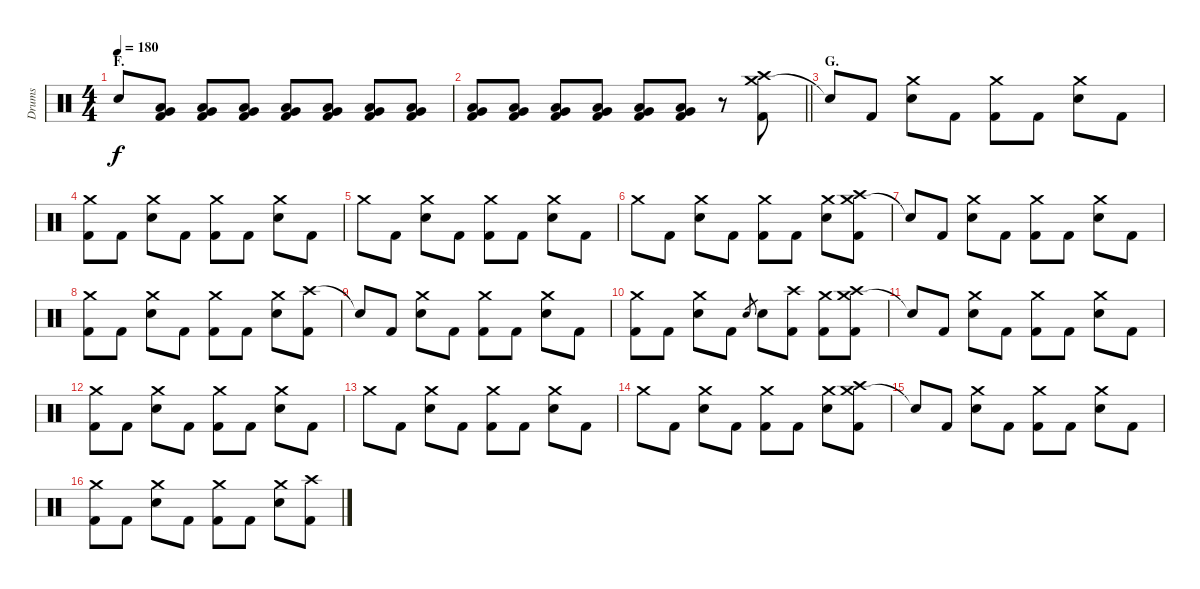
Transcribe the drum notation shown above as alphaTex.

\track ("Drums" "Drums") {instrument percussion}
\staff {score}
\articulation defaults
\ts (4 4)
\section ("" "F.")
\tempo 180
\clef neutral
\ks c "Snare (hit)"{t}.8{dy f}
("Very Low Tom (hit)" "Low Floor Tom (hit)" "Kick (hit) 2").8{volume 6} ("Very Low Tom (hit)" "Low Floor Tom (hit)" "Kick (hit) 2").8{volume 14} ("Very Low Tom (hit)" "Low Floor Tom (hit)" "Kick (hit) 2").8 ("Very Low Tom (hit)" "Low Floor Tom (hit)" "Kick (hit) 2").8 ("Very Low Tom (hit)" "Low Floor Tom (hit)" "Kick (hit) 2").8 ("Very Low Tom (hit)" "Low Floor Tom (hit)" "Kick (hit) 2").8 ("Very Low Tom (hit)" "Low Floor Tom (hit)" "Kick (hit) 2").8 |
\barLineRight lightlight
("Very Low Tom (hit)" "Low Floor Tom (hit)" "Kick (hit) 2").8 ("Very Low Tom (hit)" "Low Floor Tom (hit)" "Kick (hit) 2").8 ("Very Low Tom (hit)" "Low Floor Tom (hit)" "Kick (hit) 2").8 ("Very Low Tom (hit)" "Low Floor Tom (hit)" "Kick (hit) 2").8 ("Very Low Tom (hit)" "Low Floor Tom (hit)" "Kick (hit) 2").8 ("Very Low Tom (hit)" "Low Floor Tom (hit)" "Kick (hit) 2").8 r.8 ("Crash medium (hit)" "Crash high (hit)" "Kick (hit) 2").8 |
\section ("" "G.")
"Snare (hit)"{t}.8 "Kick (hit) 2".8 ("Crash medium (hit)" "Electric Snare (hit)").8 "Kick (hit) 2".8 ("Crash medium (hit)" "Kick (hit) 2").8 "Kick (hit) 2".8 ("Crash medium (hit)" "Electric Snare (hit)").8 "Kick (hit) 2".8 |
("Crash medium (hit)" "Kick (hit) 2").8 "Kick (hit) 2".8 ("Crash medium (hit)" "Electric Snare (hit)").8 "Kick (hit) 2".8 ("Crash medium (hit)" "Kick (hit) 2").8 "Kick (hit) 2".8 ("Crash medium (hit)" "Electric Snare (hit)").8 "Kick (hit) 2".8 |
"Crash medium (hit)".8 "Kick (hit) 2".8 ("Crash medium (hit)" "Electric Snare (hit)").8 "Kick (hit) 2".8 ("Crash medium (hit)" "Kick (hit) 2").8 "Kick (hit) 2".8 ("Crash medium (hit)" "Electric Snare (hit)").8 "Kick (hit) 2".8 |
"Crash medium (hit)".8 "Kick (hit) 2".8 ("Crash medium (hit)" "Electric Snare (hit)").8 "Kick (hit) 2".8 ("Crash medium (hit)" "Kick (hit) 2").8 "Kick (hit) 2".8 ("Crash medium (hit)" "Electric Snare (hit)").8 ("Crash medium (hit)" "Crash high (hit)" "Kick (hit) 2").8 |
"Snare (hit)"{t}.8 "Kick (hit) 2".8 ("Crash medium (hit)" "Electric Snare (hit)").8 "Kick (hit) 2".8 ("Crash medium (hit)" "Kick (hit) 2").8 "Kick (hit) 2".8 ("Crash medium (hit)" "Electric Snare (hit)").8 "Kick (hit) 2".8 |
("Crash medium (hit)" "Kick (hit) 2").8 "Kick (hit) 2".8 ("Crash medium (hit)" "Electric Snare (hit)").8 "Kick (hit) 2".8 ("Crash medium (hit)" "Kick (hit) 2").8 "Kick (hit) 2".8 ("Crash medium (hit)" "Electric Snare (hit)").8 ("Crash high (hit)" "Kick (hit) 2").8 |
"Snare (hit)"{t}.8 "Kick (hit) 2".8 ("Crash medium (hit)" "Electric Snare (hit)").8 "Kick (hit) 2".8 ("Crash medium (hit)" "Kick (hit) 2").8 "Kick (hit) 2".8 ("Crash medium (hit)" "Electric Snare (hit)").8 "Kick (hit) 2".8 |
("Crash medium (hit)" "Kick (hit) 2").8 "Kick (hit) 2".8 ("Crash medium (hit)" "Electric Snare (hit)").8 "Kick (hit) 2".8 "Electric Snare (hit)".8{gr} "Electric Snare (hit)".8 ("Crash high (hit)" "Kick (hit) 2").8 ("Crash medium (hit)" "Kick (hit) 2").8 ("Crash medium (hit)" "Crash high (hit)" "Kick (hit) 2").8 |
"Snare (hit)"{t}.8 "Kick (hit) 2".8 ("Crash medium (hit)" "Electric Snare (hit)").8 "Kick (hit) 2".8 ("Crash medium (hit)" "Kick (hit) 2").8 "Kick (hit) 2".8 ("Crash medium (hit)" "Electric Snare (hit)").8 "Kick (hit) 2".8 |
("Crash medium (hit)" "Kick (hit) 2").8 "Kick (hit) 2".8 ("Crash medium (hit)" "Electric Snare (hit)").8 "Kick (hit) 2".8 ("Crash medium (hit)" "Kick (hit) 2").8 "Kick (hit) 2".8 ("Crash medium (hit)" "Electric Snare (hit)").8 "Kick (hit) 2".8 |
"Crash medium (hit)".8 "Kick (hit) 2".8 ("Crash medium (hit)" "Electric Snare (hit)").8 "Kick (hit) 2".8 ("Crash medium (hit)" "Kick (hit) 2").8 "Kick (hit) 2".8 ("Crash medium (hit)" "Electric Snare (hit)").8 "Kick (hit) 2".8 |
"Crash medium (hit)".8 "Kick (hit) 2".8 ("Crash medium (hit)" "Electric Snare (hit)").8 "Kick (hit) 2".8 ("Crash medium (hit)" "Kick (hit) 2").8 "Kick (hit) 2".8 ("Crash medium (hit)" "Electric Snare (hit)").8 ("Crash medium (hit)" "Crash high (hit)" "Kick (hit) 2").8 |
"Snare (hit)"{t}.8 "Kick (hit) 2".8 ("Crash medium (hit)" "Electric Snare (hit)").8 "Kick (hit) 2".8 ("Crash medium (hit)" "Kick (hit) 2").8 "Kick (hit) 2".8 ("Crash medium (hit)" "Electric Snare (hit)").8 "Kick (hit) 2".8 |
("Crash medium (hit)" "Kick (hit) 2").8 "Kick (hit) 2".8 ("Crash medium (hit)" "Electric Snare (hit)").8 "Kick (hit) 2".8 ("Crash medium (hit)" "Kick (hit) 2").8 "Kick (hit) 2".8 ("Crash medium (hit)" "Electric Snare (hit)").8 ("Crash high (hit)" "Kick (hit) 2").8
